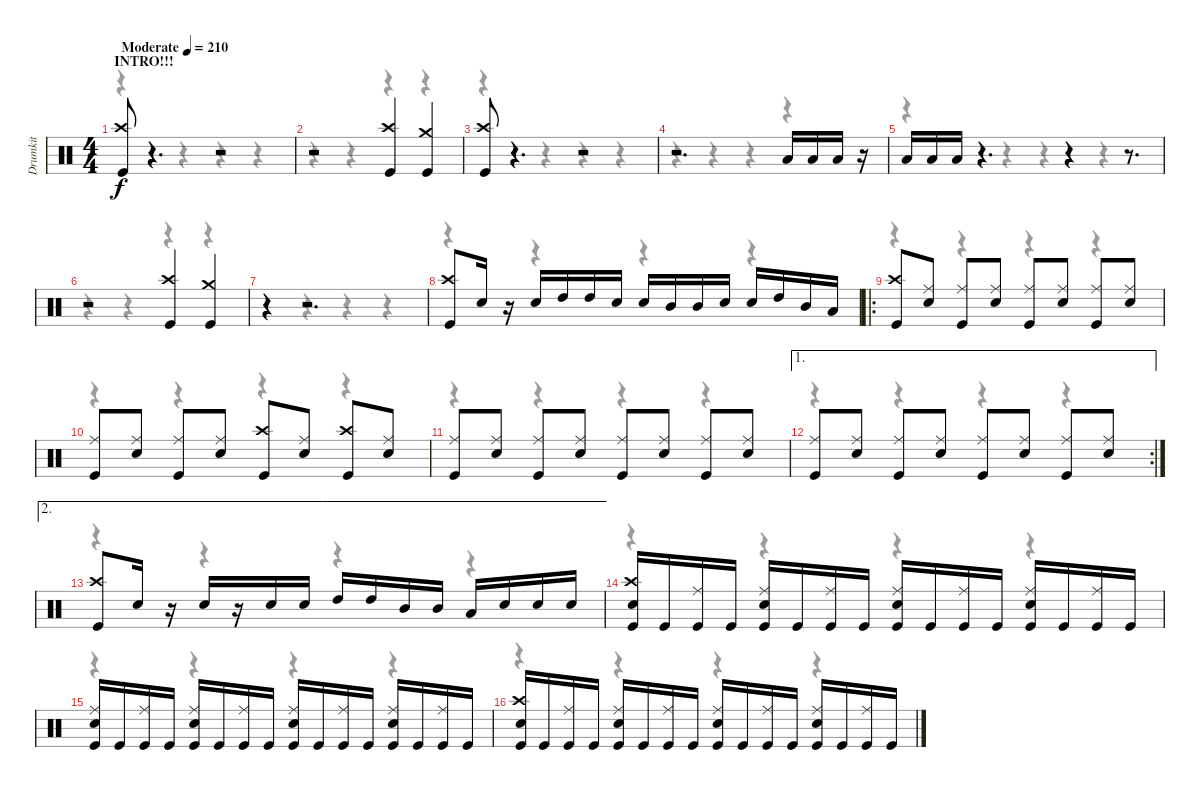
\track ("Drumkit" "Drumkit") {instrument percussion}
\staff {score}
\articulation defaults
\voice
\ts (4 4)
\section ("" "INTRO!!!")
\tempo (210 "Moderate")
\clef neutral
\ks c
("Crash high (hit)" "Kick (hit)").8{dy f} r.4{d} r.2 |
r.2 ("Crash high (hit)" "Kick (hit)").4 ("Crash medium (hit)" "Kick (hit)").4 |
("Crash high (hit)" "Kick (hit)").8 r.4{d} r.2 |
r.2{d} "Low Floor Tom (hit)".16 "Low Floor Tom (hit)".16 "Low Floor Tom (hit)".16 r.16 |
"Low Floor Tom (hit)".16 "Low Floor Tom (hit)".16 "Low Floor Tom (hit)".16 r.4{d} r.4 r.8{d} |
r.2 ("Crash high (hit)" "Kick (hit)").4 ("Crash medium (hit)" "Kick (hit)").4 |
r.4 r.2{d} |
("Crash high (hit)" "Kick (hit)").8 "Snare (hit) 2".16 r.16 "Snare (hit) 2".16 "High Tom (hit)".16 "High Tom (hit)".16 "Snare (hit) 2".16 "Snare (hit) 2".16 "Mid Tom (hit)".16 "Mid Tom (hit)".16 "Snare (hit) 2".16 "Snare (hit) 2".16 "High Tom (hit)".16 "Mid Tom (hit)".16 "Low Tom (hit)".16 |
\ro
("Crash high (hit)" "Kick (hit)").8 ("Ride (middle)" "Snare (hit) 2").8 ("Ride (middle)" "Kick (hit)").8 ("Ride (middle)" "Snare (hit) 2").8 ("Ride (middle)" "Kick (hit)").8 ("Ride (middle)" "Snare (hit) 2").8 ("Ride (middle)" "Kick (hit)").8 ("Ride (middle)" "Snare (hit) 2").8 |
("Ride (middle)" "Kick (hit)").8 ("Ride (middle)" "Snare (hit) 2").8 ("Ride (middle)" "Kick (hit)").8 ("Ride (middle)" "Snare (hit) 2").8 ("Crash high (hit)" "Kick (hit)").8 ("Ride (middle)" "Snare (hit) 2").8 ("Crash high (hit)" "Kick (hit)").8 ("Ride (middle)" "Snare (hit) 2").8 |
("Ride (middle)" "Kick (hit)").8 ("Ride (middle)" "Snare (hit) 2").8 ("Ride (middle)" "Kick (hit)").8 ("Ride (middle)" "Snare (hit) 2").8 ("Ride (middle)" "Kick (hit)").8 ("Ride (middle)" "Snare (hit) 2").8 ("Ride (middle)" "Kick (hit)").8 ("Ride (middle)" "Snare (hit) 2").8 |
\ae 1
\rc 2
("Ride (middle)" "Kick (hit)").8 ("Ride (middle)" "Snare (hit) 2").8 ("Ride (middle)" "Kick (hit)").8 ("Ride (middle)" "Snare (hit) 2").8 ("Ride (middle)" "Kick (hit)").8 ("Ride (middle)" "Snare (hit) 2").8 ("Ride (middle)" "Kick (hit)").8 ("Ride (middle)" "Snare (hit) 2").8 |
\ae 2
("Crash high (hit)" "Kick (hit)").8 "Snare (hit) 2".16 r.16 "Snare (hit) 2".16 r.16 "Snare (hit) 2".16 "Snare (hit) 2".16 "High Tom (hit)".16 "High Tom (hit)".16 "Mid Tom (hit)".16 "Mid Tom (hit)".16 "Low Tom (hit)".16 "Snare (hit) 2".16 "Snare (hit) 2".16 "Snare (hit) 2".16 |
("Crash high (hit)" "Snare (hit) 2" "Kick (hit)").16 "Kick (hit)".16 ("Ride (middle)" "Kick (hit)").16 "Kick (hit)".16 ("Ride (middle)" "Snare (hit) 2" "Kick (hit)").16 "Kick (hit)".16 ("Ride (middle)" "Kick (hit)").16 "Kick (hit)".16 ("Ride (middle)" "Snare (hit) 2" "Kick (hit)").16 "Kick (hit)".16 ("Ride (middle)" "Kick (hit)").16 "Kick (hit)".16 ("Ride (middle)" "Snare (hit) 2" "Kick (hit)").16 "Kick (hit)".16 ("Ride (middle)" "Kick (hit)").16 "Kick (hit)".16 |
("Ride (middle)" "Snare (hit) 2" "Kick (hit)").16 "Kick (hit)".16 ("Ride (middle)" "Kick (hit)").16 "Kick (hit)".16 ("Ride (middle)" "Snare (hit) 2" "Kick (hit)").16 "Kick (hit)".16 ("Ride (middle)" "Kick (hit)").16 "Kick (hit)".16 ("Ride (middle)" "Snare (hit) 2" "Kick (hit)").16 "Kick (hit)".16 ("Ride (middle)" "Kick (hit)").16 "Kick (hit)".16 ("Ride (middle)" "Snare (hit) 2" "Kick (hit)").16 "Kick (hit)".16 ("Ride (middle)" "Kick (hit)").16 "Kick (hit)".16 |
("Crash high (hit)" "Snare (hit) 2" "Kick (hit)").16 "Kick (hit)".16 ("Ride (middle)" "Kick (hit)").16 "Kick (hit)".16 ("Ride (middle)" "Snare (hit) 2" "Kick (hit)").16 "Kick (hit)".16 ("Ride (middle)" "Kick (hit)").16 "Kick (hit)".16 ("Ride (middle)" "Snare (hit) 2" "Kick (hit)").16 "Kick (hit)".16 ("Ride (middle)" "Kick (hit)").16 "Kick (hit)".16 ("Ride (middle)" "Snare (hit) 2" "Kick (hit)").16 "Kick (hit)".16 ("Ride (middle)" "Kick (hit)").16 "Kick (hit)".16
\voice
\clef neutral
\ottava regular
\simile none
\ks c
r.4{dy f} r.4 r.4 r.4 |
r.4 r.4 r.4 r.4 |
r.4 r.4 r.4 r.4 |
r.4 r.4 r.4 r.4 |
r.4 r.4 r.4 r.4 |
r.4 r.4 r.4 r.4 |
r.4 r.4 r.4 r.4 |
r.4 r.4 r.4 r.4 |
r.4 r.4 r.4 r.4 |
r.4 r.4 r.4 r.4 |
r.4 r.4 r.4 r.4 |
r.4 r.4 r.4 r.4 |
r.4 r.4 r.4 r.4 |
r.4 r.4 r.4 r.4 |
r.4 r.4 r.4 r.4 |
r.4 r.4 r.4 r.4
